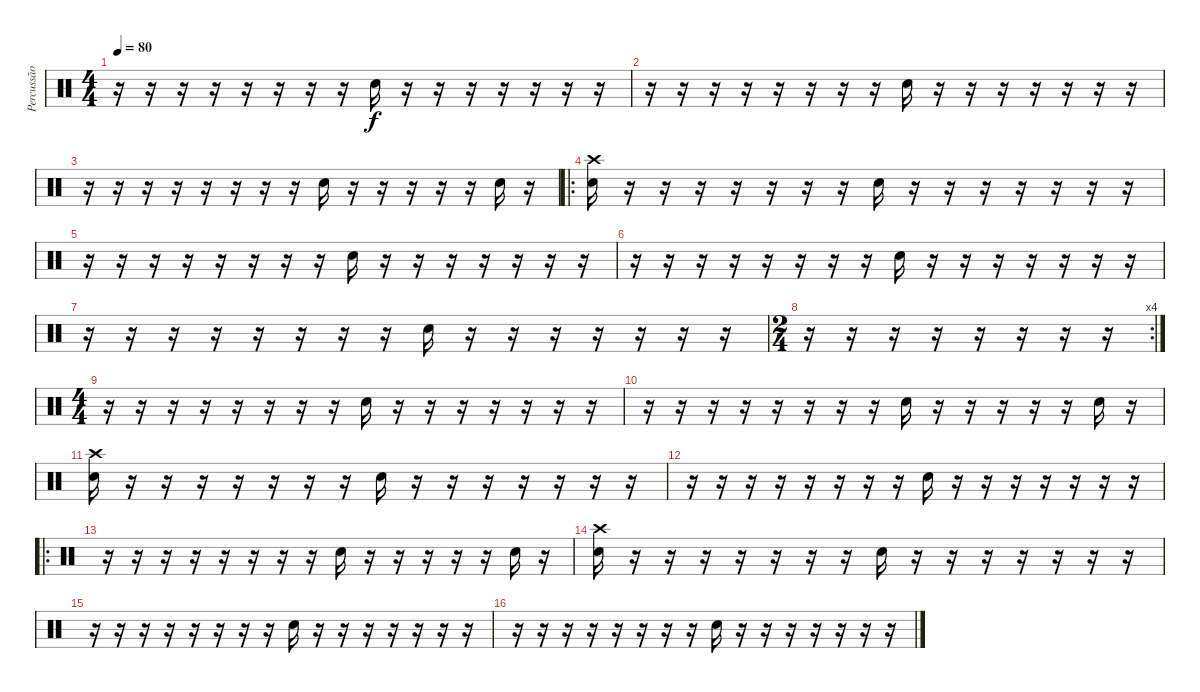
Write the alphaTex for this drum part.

\track ("Percussão" "Percussão") {instrument percussion}
\staff {score}
\articulation defaults
\ts (4 4)
\tempo 80
\clef neutral
\ks c
r.16{dy f} r.16 r.16 r.16 r.16 r.16 r.16 r.16 "Electric Snare (hit)".16 r.16 r.16 r.16 r.16 r.16 r.16 r.16 |
r.16 r.16 r.16 r.16 r.16 r.16 r.16 r.16 "Electric Snare (hit)".16 r.16 r.16 r.16 r.16 r.16 r.16 r.16 |
r.16 r.16 r.16 r.16 r.16 r.16 r.16 r.16 "Electric Snare (hit)".16 r.16 r.16 r.16 r.16 r.16 "Electric Snare (hit)".16 r.16 |
\ro
("Crash high (hit)" "Electric Snare (hit)").16 r.16 r.16 r.16 r.16 r.16 r.16 r.16 "Electric Snare (hit)".16 r.16 r.16 r.16 r.16 r.16 r.16 r.16 |
r.16 r.16 r.16 r.16 r.16 r.16 r.16 r.16 "Electric Snare (hit)".16 r.16 r.16 r.16 r.16 r.16 r.16 r.16 |
r.16 r.16 r.16 r.16 r.16 r.16 r.16 r.16 "Electric Snare (hit)".16 r.16 r.16 r.16 r.16 r.16 r.16 r.16 |
r.16 r.16 r.16 r.16 r.16 r.16 r.16 r.16 "Electric Snare (hit)".16 r.16 r.16 r.16 r.16 r.16 r.16 r.16 |
\rc 4
\ts (2 4)
r.16 r.16 r.16 r.16 r.16 r.16 r.16 r.16 |
\ts (4 4)
r.16 r.16 r.16 r.16 r.16 r.16 r.16 r.16 "Electric Snare (hit)".16 r.16 r.16 r.16 r.16 r.16 r.16 r.16 |
r.16 r.16 r.16 r.16 r.16 r.16 r.16 r.16 "Electric Snare (hit)".16 r.16 r.16 r.16 r.16 r.16 "Electric Snare (hit)".16 r.16 |
("Crash high (hit)" "Electric Snare (hit)").16 r.16 r.16 r.16 r.16 r.16 r.16 r.16 "Electric Snare (hit)".16 r.16 r.16 r.16 r.16 r.16 r.16 r.16 |
r.16 r.16 r.16 r.16 r.16 r.16 r.16 r.16 "Electric Snare (hit)".16 r.16 r.16 r.16 r.16 r.16 r.16 r.16 |
\ro
r.16 r.16 r.16 r.16 r.16 r.16 r.16 r.16 "Electric Snare (hit)".16 r.16 r.16 r.16 r.16 r.16 "Electric Snare (hit)".16 r.16 |
("Crash high (hit)" "Electric Snare (hit)").16 r.16 r.16 r.16 r.16 r.16 r.16 r.16 "Electric Snare (hit)".16 r.16 r.16 r.16 r.16 r.16 r.16 r.16 |
r.16 r.16 r.16 r.16 r.16 r.16 r.16 r.16 "Electric Snare (hit)".16 r.16 r.16 r.16 r.16 r.16 r.16 r.16 |
r.16 r.16 r.16 r.16 r.16 r.16 r.16 r.16 "Electric Snare (hit)".16 r.16 r.16 r.16 r.16 r.16 r.16 r.16
